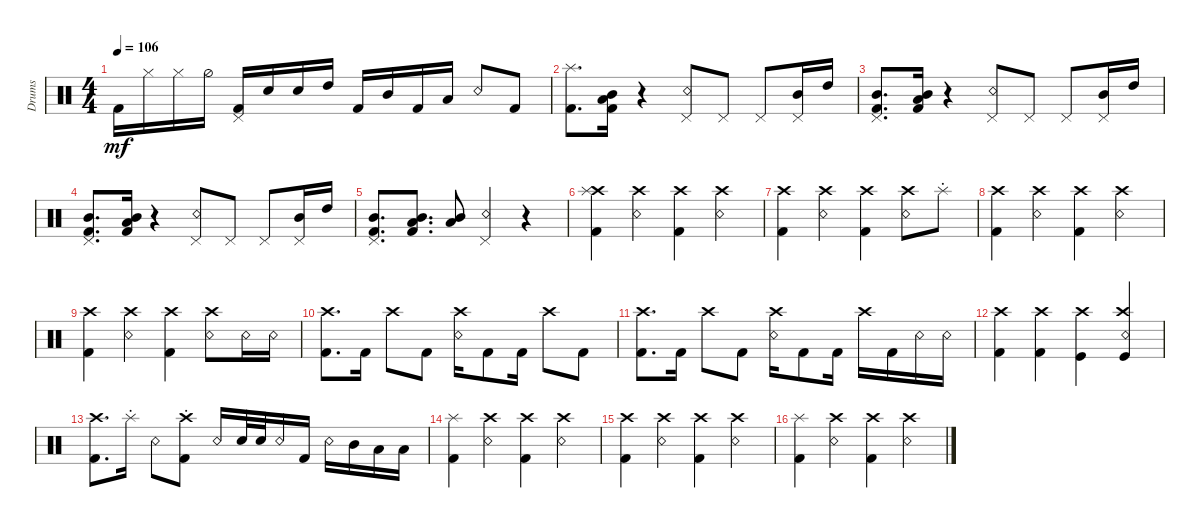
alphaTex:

\track ("Drums" "Drums") {instrument percussion}
\staff {score}
\articulation defaults
\ts (4 4)
\tempo 106
\clef neutral
\ks c "Kick (hit) 2".16{dy mf} "Hi-Hat (closed)".16 "Hi-Hat (closed)".16 "Hi-Hat (half)".16
("Pedal Hi-Hat (hit)" "Kick (hit) 2").16 "Snare (hit) 2".16 "Snare (hit) 2".16 "High Tom (hit)".16 "Kick (hit) 2".16 "Mid Tom (hit)".16 "Kick (hit) 2".16 "Low Tom (hit)".16 "Snare (rim shot)".8 "Kick (hit) 2".8 |
("Splash (hit)" "Kick (hit) 2").8{d} ("Mid Tom (hit)" "Low Tom (hit)" "Kick (hit) 2").16 r.4 ("Pedal Hi-Hat (hit)" "Snare (rim shot)").8 "Pedal Hi-Hat (hit)".8 "Pedal Hi-Hat (hit)".8 ("Pedal Hi-Hat (hit)" "Mid Tom (hit)").16 "High Tom (hit)".16 |
("Pedal Hi-Hat (hit)" "Mid Tom (hit)" "Kick (hit) 2").8{d} ("Mid Tom (hit)" "Low Tom (hit)" "Kick (hit) 2").16 r.4 ("Pedal Hi-Hat (hit)" "Snare (rim shot)").8 "Pedal Hi-Hat (hit)".8 "Pedal Hi-Hat (hit)".8 ("Pedal Hi-Hat (hit)" "Mid Tom (hit)").16 "High Tom (hit)".16 |
("Pedal Hi-Hat (hit)" "Mid Tom (hit)" "Kick (hit) 2").8{d} ("Mid Tom (hit)" "Low Tom (hit)" "Kick (hit) 2").16 r.4 ("Pedal Hi-Hat (hit)" "Snare (rim shot)").8 "Pedal Hi-Hat (hit)".8 "Pedal Hi-Hat (hit)".8 ("Pedal Hi-Hat (hit)" "Mid Tom (hit)").16 "High Tom (hit)".16 |
("Pedal Hi-Hat (hit)" "Mid Tom (hit)" "Kick (hit) 2").8{d} ("Mid Tom (hit)" "Low Tom (hit)" "Kick (hit) 2").8{d} ("Mid Tom (hit)" "Low Tom (hit)").8 ("Pedal Hi-Hat (hit)" "Snare (rim shot)").4 r.4 |
("Crash high (hit)" "Splash (hit)" "Kick (hit) 2").4 ("Crash high (hit)" "Snare (rim shot)").4 ("Crash high (hit)" "Kick (hit) 2").4 ("Crash high (hit)" "Snare (rim shot)").4 |
("Crash high (hit)" "Kick (hit) 2").4 ("Crash high (hit)" "Snare (rim shot)").4 ("Crash high (hit)" "Kick (hit) 2").4 ("Crash high (hit)" "Snare (rim shot)").8 "Splash (choke)".8 |
("Crash high (hit)" "Kick (hit) 2").4 ("Crash high (hit)" "Snare (rim shot)").4 ("Crash high (hit)" "Kick (hit) 2").4 ("Crash high (hit)" "Snare (rim shot)").4 |
("Crash high (hit)" "Kick (hit) 2").4 ("Crash high (hit)" "Snare (rim shot)").4 ("Crash high (hit)" "Kick (hit) 2").4 ("Crash high (hit)" "Snare (rim shot)").8 "Snare (rim shot)".16 "Snare (rim shot)".16 |
("Crash high (hit)" "Kick (hit) 2").8{d} "Kick (hit) 2".16 "Crash high (hit)".8 "Kick (hit) 2".8 ("Crash high (hit)" "Snare (rim shot)").16 "Kick (hit) 2".8 "Kick (hit) 2".16 "Crash high (hit)".8 "Kick (hit) 2".8 |
("Crash high (hit)" "Kick (hit) 2").8{d} "Kick (hit) 2".16 "Crash high (hit)".8 "Kick (hit) 2".8 ("Crash high (hit)" "Snare (rim shot)").16 "Kick (hit) 2".8 "Kick (hit) 2".16 "Crash high (hit)".16 "Kick (hit) 2".16 "Snare (rim shot)".16 "Snare (rim shot)".16 |
("Crash high (hit)" "Kick (hit) 2").4 ("Crash high (hit)" "Kick (hit) 2").4 ("Crash high (hit)" "Kick (hit)").4 ("Crash high (hit)" "Kick (hit)" "Snare (rim shot)").4 |
("Crash high (hit)" "Kick (hit) 2").8{d} "Splash (choke)".16 "Snare (rim shot)".8 ("Crash high (hit)"{st} "Kick (hit) 2").8 "Snare (rim shot)".16 "Snare (hit) 2".32 "Snare (hit) 2".32 "Snare (rim shot)".16 "Kick (hit) 2".16 "Snare (rim shot)".16 "Mid Tom (hit)".16 "Low Tom (hit)".16 "Low Tom (hit)".16 |
("Splash (hit)" "Kick (hit) 2").4 ("Crash high (hit)" "Snare (rim shot)").4 ("Crash high (hit)" "Kick (hit) 2").4 ("Crash high (hit)" "Snare (rim shot)").4 |
("Crash high (hit)" "Kick (hit) 2").4 ("Crash high (hit)" "Snare (rim shot)").4 ("Crash high (hit)" "Kick (hit) 2").4 ("Crash high (hit)" "Snare (rim shot)").4 |
("Splash (hit)" "Kick (hit) 2").4 ("Crash high (hit)" "Snare (rim shot)").4 ("Crash high (hit)" "Kick (hit) 2").4 ("Crash high (hit)" "Snare (rim shot)").4
